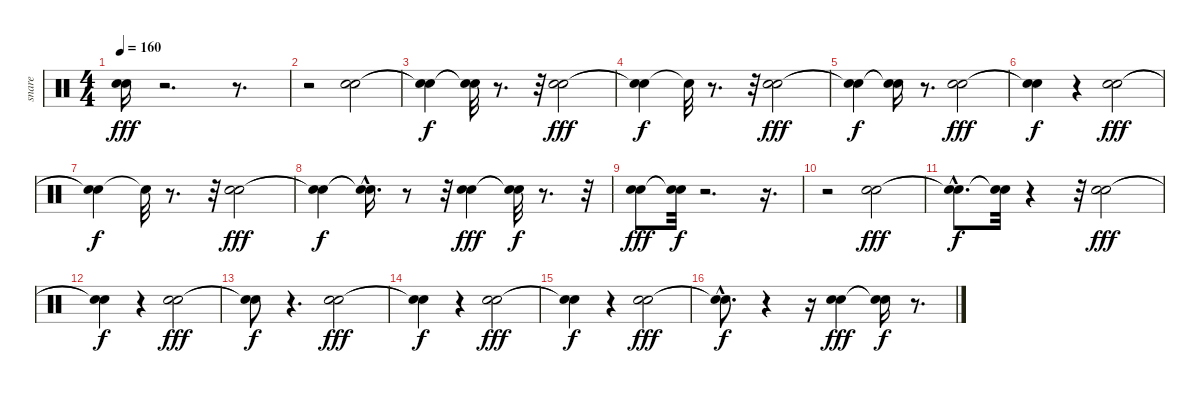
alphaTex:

\track ("snare" "snare") {instrument percussion}
\staff {score}
\articulation defaults
\ts (4 4)
\tempo 160
\clef neutral
\ks c
("Electric Snare (hit)" "Snare (hit) 2").16{dy fff} r.2{d} r.8{d} |
r.2 ("Electric Snare (hit)" "Snare (hit) 2").2 |
("Snare (hit)"{t} "Snare (hit)"{t}).4{dy f} ("Snare (hit)"{t} "Snare (hit)"{t}).32 r.8{d} r.32 ("Snare (hit) 2" "Electric Snare (hit)").2{dy fff} |
("Snare (hit)"{t} "Snare (hit)"{t}).4{dy f} "Snare (hit)"{t}.32 r.8{d} r.32 ("Snare (hit) 2" "Electric Snare (hit)").2{dy fff} |
("Snare (hit)"{t} "Snare (hit)"{t}).4{dy f} ("Snare (hit)"{t} "Snare (hit)"{t}).16 r.8{d} ("Snare (hit) 2" "Electric Snare (hit)").2{dy fff} |
("Snare (hit)"{t} "Snare (hit)"{t}).4{dy f} r.4 ("Snare (hit) 2" "Electric Snare (hit)").2{dy fff} |
("Snare (hit)"{t} "Snare (hit)"{t}).4{dy f} "Snare (hit)"{t}.32 r.8{d} r.32 ("Electric Snare (hit)" "Snare (hit) 2").2{dy fff} |
("Snare (hit)"{t} "Snare (hit)"{t}).4{dy f} ("Snare (hit)"{t} "Snare (hit)"{hac t}).16{d} r.8 r.32 ("Snare (hit) 2" "Electric Snare (hit)").4{dy fff} ("Snare (hit)"{t} "Snare (hit)"{t}).32{dy f} r.8{d} r.32 |
("Electric Snare (hit)" "Snare (hit) 2").8{dy fff} ("Snare (hit)"{t} "Snare (hit)"{t}).32{dy f} r.2{d} r.16{d} |
r.2 ("Electric Snare (hit)" "Snare (hit) 2").2{dy fff} |
("Snare (hit)"{hac t} "Snare (hit)"{hac t}).8{d dy f} ("Snare (hit)"{t} "Snare (hit)"{t}).32 r.4 r.32 ("Snare (hit) 2" "Electric Snare (hit)").2{dy fff} |
("Snare (hit)"{t} "Snare (hit)"{t}).4{dy f} r.4 ("Snare (hit) 2" "Electric Snare (hit)").2{dy fff} |
("Snare (hit)"{t} "Snare (hit)"{t}).8{dy f} r.4{d} ("Snare (hit) 2" "Electric Snare (hit)").2{dy fff} |
("Snare (hit)"{t} "Snare (hit)"{t}).4{dy f} r.4 ("Snare (hit) 2" "Electric Snare (hit)").2{dy fff} |
("Snare (hit)"{t} "Snare (hit)"{t}).4{dy f} r.4 ("Electric Snare (hit)" "Snare (hit) 2").2{dy fff} |
("Snare (hit)"{t} "Snare (hit)"{hac t}).8{d dy f} r.4 r.16 ("Snare (hit) 2" "Electric Snare (hit)").4{dy fff} ("Snare (hit)"{t} "Snare (hit)"{t}).16{dy f} r.8{d}
